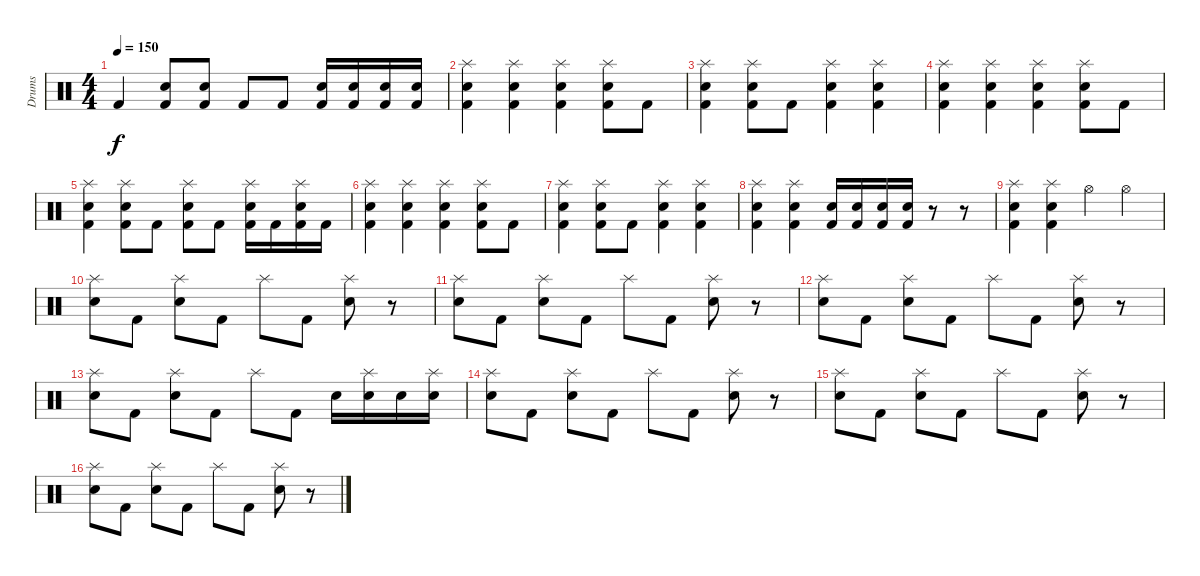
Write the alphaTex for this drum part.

\track ("Drums" "Drums") {instrument percussion}
\staff {score}
\articulation defaults
\ts (4 4)
\tempo 150
\clef neutral
\ks c "Kick (hit) 2".4{dy f}
("Snare (hit) 2" "Kick (hit) 2").8 ("Snare (hit) 2" "Kick (hit) 2").8 "Kick (hit) 2".8 "Kick (hit) 2".8 ("Snare (hit) 2" "Kick (hit) 2").16 ("Snare (hit) 2" "Kick (hit) 2").16 ("Snare (hit) 2" "Kick (hit) 2").16 ("Snare (hit) 2" "Kick (hit) 2").16 |
("Splash (hit)" "Snare (hit) 2" "Kick (hit) 2").4 ("Splash (hit)" "Snare (hit) 2" "Kick (hit) 2").4 ("Splash (hit)" "Snare (hit) 2" "Kick (hit) 2").4 ("Splash (hit)" "Snare (hit) 2" "Kick (hit) 2").8 "Kick (hit) 2".8 |
("Splash (hit)" "Snare (hit) 2" "Kick (hit) 2").4 ("Splash (hit)" "Snare (hit) 2" "Kick (hit) 2").8 "Kick (hit) 2".8 ("Splash (hit)" "Snare (hit) 2" "Kick (hit) 2").4 ("Splash (hit)" "Snare (hit) 2" "Kick (hit) 2").4 |
("Splash (hit)" "Snare (hit) 2" "Kick (hit) 2").4 ("Splash (hit)" "Snare (hit) 2" "Kick (hit) 2").4 ("Splash (hit)" "Snare (hit) 2" "Kick (hit) 2").4 ("Splash (hit)" "Snare (hit) 2" "Kick (hit) 2").8 "Kick (hit) 2".8 |
("Splash (hit)" "Snare (hit) 2" "Kick (hit) 2").4 ("Splash (hit)" "Snare (hit) 2" "Kick (hit) 2").8 "Kick (hit) 2".8 ("Splash (hit)" "Snare (hit) 2" "Kick (hit) 2").8 "Kick (hit) 2".8 ("Splash (hit)" "Snare (hit) 2" "Kick (hit) 2").16 "Kick (hit) 2".16 ("Splash (hit)" "Snare (hit) 2" "Kick (hit) 2").16 "Kick (hit) 2".16 |
("Splash (hit)" "Snare (hit) 2" "Kick (hit) 2").4 ("Splash (hit)" "Snare (hit) 2" "Kick (hit) 2").4 ("Splash (hit)" "Snare (hit) 2" "Kick (hit) 2").4 ("Splash (hit)" "Snare (hit) 2" "Kick (hit) 2").8 "Kick (hit) 2".8 |
("Splash (hit)" "Snare (hit) 2" "Kick (hit) 2").4 ("Splash (hit)" "Snare (hit) 2" "Kick (hit) 2").8 "Kick (hit) 2".8 ("Splash (hit)" "Snare (hit) 2" "Kick (hit) 2").4 ("Splash (hit)" "Snare (hit) 2" "Kick (hit) 2").4 |
("Splash (hit)" "Snare (hit) 2" "Kick (hit) 2").4 ("Splash (hit)" "Snare (hit) 2" "Kick (hit) 2").4 ("Snare (hit) 2" "Kick (hit) 2").16 ("Snare (hit) 2" "Kick (hit) 2").16 ("Snare (hit) 2" "Kick (hit) 2").16 ("Snare (hit) 2" "Kick (hit) 2").16 r.8 r.8 |
("Splash (hit)" "Snare (hit) 2" "Kick (hit) 2").4 ("Splash (hit)" "Snare (hit) 2" "Kick (hit) 2").4 "Hi-Hat (open)".4 "Hi-Hat (open)".4 |
("Splash (hit)" "Snare (hit) 2").8 "Kick (hit) 2".8 ("Splash (hit)" "Snare (hit) 2").8 "Kick (hit) 2".8 "Splash (hit)".8 "Kick (hit) 2".8 ("Splash (hit)" "Snare (hit) 2").8 r.8 |
("Splash (hit)" "Snare (hit) 2").8 "Kick (hit) 2".8 ("Splash (hit)" "Snare (hit) 2").8 "Kick (hit) 2".8 "Splash (hit)".8 "Kick (hit) 2".8 ("Splash (hit)" "Snare (hit) 2").8 r.8 |
("Splash (hit)" "Snare (hit) 2").8 "Kick (hit) 2".8 ("Splash (hit)" "Snare (hit) 2").8 "Kick (hit) 2".8 "Splash (hit)".8 "Kick (hit) 2".8 ("Splash (hit)" "Snare (hit) 2").8 r.8 |
("Splash (hit)" "Snare (hit) 2").8 "Kick (hit) 2".8 ("Splash (hit)" "Snare (hit) 2").8 "Kick (hit) 2".8 "Splash (hit)".8 "Kick (hit) 2".8 "Snare (hit) 2".16 ("Splash (hit)" "Snare (hit) 2").16 "Snare (hit) 2".16 ("Splash (hit)" "Snare (hit) 2").16 |
("Splash (hit)" "Snare (hit) 2").8 "Kick (hit) 2".8 ("Splash (hit)" "Snare (hit) 2").8 "Kick (hit) 2".8 "Splash (hit)".8 "Kick (hit) 2".8 ("Splash (hit)" "Snare (hit) 2").8 r.8 |
("Splash (hit)" "Snare (hit) 2").8 "Kick (hit) 2".8 ("Splash (hit)" "Snare (hit) 2").8 "Kick (hit) 2".8 "Splash (hit)".8 "Kick (hit) 2".8 ("Splash (hit)" "Snare (hit) 2").8 r.8 |
("Splash (hit)" "Snare (hit) 2").8 "Kick (hit) 2".8 ("Splash (hit)" "Snare (hit) 2").8 "Kick (hit) 2".8 "Splash (hit)".8 "Kick (hit) 2".8 ("Splash (hit)" "Snare (hit) 2").8 r.8
